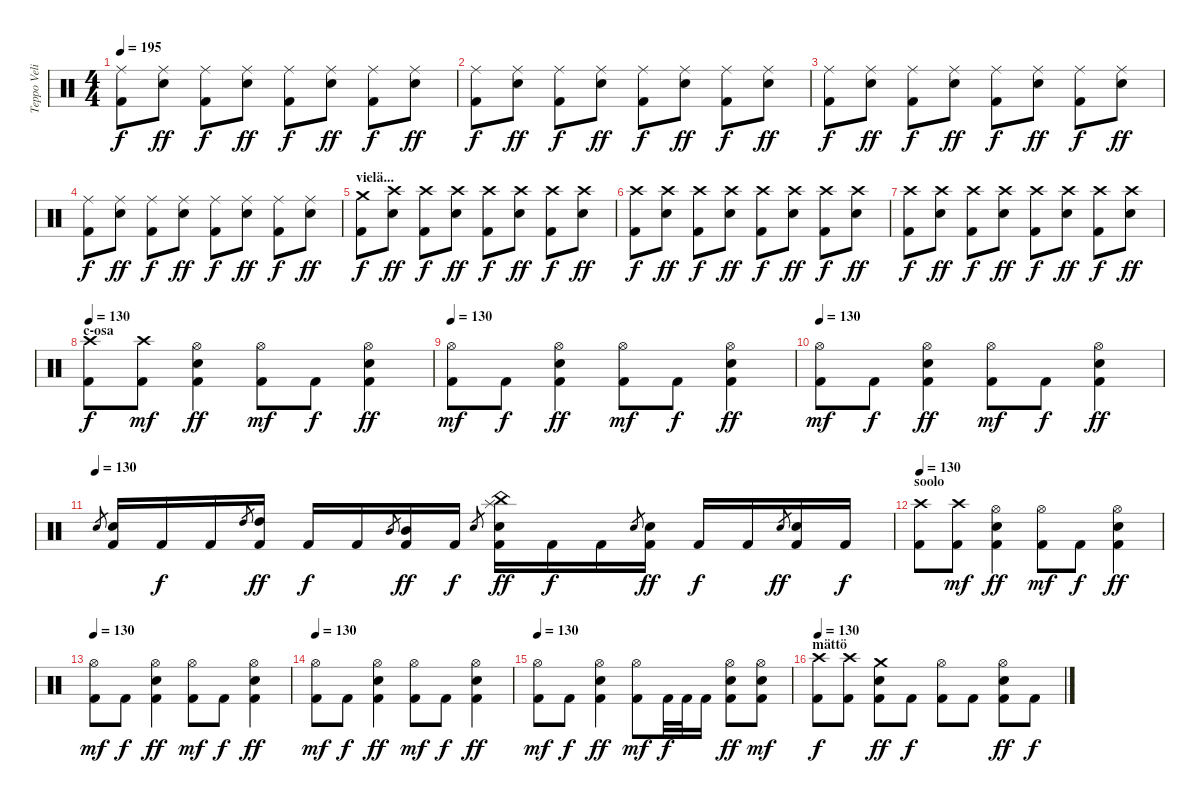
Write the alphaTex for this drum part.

\track ("Teppo Velin" "Teppo Veli") {instrument percussion}
\staff {score}
\articulation defaults
\ts (4 4)
\tempo 195
\clef neutral
\ks c
("Ride (middle)" "Kick (hit) 2").8{dy f} ("Ride (middle)" "Electric Snare (hit)").8{dy ff} ("Ride (middle)" "Kick (hit) 2").8{dy f} ("Ride (middle)" "Electric Snare (hit)").8{dy ff} ("Ride (middle)" "Kick (hit) 2").8{dy f} ("Ride (middle)" "Electric Snare (hit)").8{dy ff} ("Ride (middle)" "Kick (hit) 2").8{dy f} ("Ride (middle)" "Electric Snare (hit)").8{dy ff} |
("Ride (middle)" "Kick (hit) 2").8{dy f} ("Ride (middle)" "Electric Snare (hit)").8{dy ff} ("Ride (middle)" "Kick (hit) 2").8{dy f} ("Ride (middle)" "Electric Snare (hit)").8{dy ff} ("Ride (middle)" "Kick (hit) 2").8{dy f} ("Ride (middle)" "Electric Snare (hit)").8{dy ff} ("Ride (middle)" "Kick (hit) 2").8{dy f} ("Ride (middle)" "Electric Snare (hit)").8{dy ff} |
("Ride (middle)" "Kick (hit) 2").8{dy f} ("Ride (middle)" "Electric Snare (hit)").8{dy ff} ("Ride (middle)" "Kick (hit) 2").8{dy f} ("Ride (middle)" "Electric Snare (hit)").8{dy ff} ("Ride (middle)" "Kick (hit) 2").8{dy f} ("Ride (middle)" "Electric Snare (hit)").8{dy ff} ("Ride (middle)" "Kick (hit) 2").8{dy f} ("Ride (middle)" "Electric Snare (hit)").8{dy ff} |
("Ride (middle)" "Kick (hit) 2").8{dy f} ("Ride (middle)" "Electric Snare (hit)").8{dy ff} ("Ride (middle)" "Kick (hit) 2").8{dy f} ("Ride (middle)" "Electric Snare (hit)").8{dy ff} ("Ride (middle)" "Kick (hit) 2").8{dy f} ("Ride (middle)" "Electric Snare (hit)").8{dy ff} ("Ride (middle)" "Kick (hit) 2").8{dy f} ("Ride (middle)" "Electric Snare (hit)").8{dy ff} |
\section ("" "vielä...")
("Crash medium (hit)" "Kick (hit) 2").8{dy f} ("Crash high (hit)" "Electric Snare (hit)").8{dy ff} ("Crash high (hit)" "Kick (hit) 2").8{dy f} ("Crash high (hit)" "Electric Snare (hit)").8{dy ff} ("Crash high (hit)" "Kick (hit) 2").8{dy f} ("Crash high (hit)" "Electric Snare (hit)").8{dy ff} ("Crash high (hit)" "Kick (hit) 2").8{dy f} ("Crash high (hit)" "Electric Snare (hit)").8{dy ff} |
("Crash high (hit)" "Kick (hit) 2").8{dy f} ("Crash high (hit)" "Electric Snare (hit)").8{dy ff} ("Crash high (hit)" "Kick (hit) 2").8{dy f} ("Crash high (hit)" "Electric Snare (hit)").8{dy ff} ("Crash high (hit)" "Kick (hit) 2").8{dy f} ("Crash high (hit)" "Electric Snare (hit)").8{dy ff} ("Crash high (hit)" "Kick (hit) 2").8{dy f} ("Crash high (hit)" "Electric Snare (hit)").8{dy ff} |
("Crash high (hit)" "Kick (hit) 2").8{dy f} ("Crash high (hit)" "Electric Snare (hit)").8{dy ff} ("Crash high (hit)" "Kick (hit) 2").8{dy f} ("Crash high (hit)" "Electric Snare (hit)").8{dy ff} ("Crash high (hit)" "Kick (hit) 2").8{dy f} ("Crash high (hit)" "Electric Snare (hit)").8{dy ff} ("Crash high (hit)" "Kick (hit) 2").8{dy f} ("Crash high (hit)" "Electric Snare (hit)").8{dy ff} |
\section ("" "c-osa")
\tempo 130
("Crash high (hit)" "Kick (hit) 2").8{dy f} ("Crash high (hit)" "Kick (hit) 2").8{dy mf} ("Hi-Hat (open)" "Electric Snare (hit)" "Kick (hit) 2").4{dy ff} ("Hi-Hat (open)" "Kick (hit) 2").8{dy mf} "Kick (hit) 2".8{dy f} ("Hi-Hat (open)" "Electric Snare (hit)" "Kick (hit) 2").4{dy ff} |
\tempo 130
("Hi-Hat (open)" "Kick (hit) 2").8{dy mf} "Kick (hit) 2".8{dy f} ("Hi-Hat (open)" "Electric Snare (hit)" "Kick (hit) 2").4{dy ff} ("Hi-Hat (open)" "Kick (hit) 2").8{dy mf} "Kick (hit) 2".8{dy f} ("Hi-Hat (open)" "Electric Snare (hit)" "Kick (hit) 2").4{dy ff} |
\tempo 130
("Hi-Hat (open)" "Kick (hit) 2").8{dy mf} "Kick (hit) 2".8{dy f} ("Hi-Hat (open)" "Electric Snare (hit)" "Kick (hit) 2").4{dy ff} ("Hi-Hat (open)" "Kick (hit) 2").8{dy mf} "Kick (hit) 2".8{dy f} ("Hi-Hat (open)" "Electric Snare (hit)" "Kick (hit) 2").4{dy ff} |
\tempo (130)
"Electric Snare (hit)".8{gr} ("Electric Snare (hit)" "Kick (hit) 2").16 "Kick (hit) 2".16{dy f} "Kick (hit) 2".16 "High Tom (hit)".8{gr} ("High Tom (hit)" "Kick (hit) 2").16{dy ff} "Kick (hit) 2".16{dy f} "Kick (hit) 2".16 "Mid Tom (hit)".8{gr} ("Mid Tom (hit)" "Kick (hit) 2").16{dy ff} "Kick (hit) 2".16{dy f} "Electric Snare (hit)".8{gr} ("China (hit)" "Splash (hit)" "Electric Snare (hit)" "Kick (hit) 2").16{dy ff} "Kick (hit) 2".16{dy f} "Kick (hit) 2".16 "Electric Snare (hit)".8{gr} ("Electric Snare (hit)" "Kick (hit) 2").16{dy ff} "Kick (hit) 2".16{dy f} "Kick (hit) 2".16 "Electric Snare (hit)".8{gr dy ff} ("Electric Snare (hit)" "Kick (hit) 2").16 "Kick (hit) 2".16{dy f} |
\section ("" "soolo")
\tempo 130
("Crash high (hit)" "Kick (hit) 2").8 ("Crash high (hit)" "Kick (hit) 2").8{dy mf} ("Hi-Hat (open)" "Electric Snare (hit)" "Kick (hit) 2").4{dy ff} ("Hi-Hat (open)" "Kick (hit) 2").8{dy mf} "Kick (hit) 2".8{dy f} ("Hi-Hat (open)" "Electric Snare (hit)" "Kick (hit) 2").4{dy ff} |
\tempo 130
("Hi-Hat (open)" "Kick (hit) 2").8{dy mf} "Kick (hit) 2".8{dy f} ("Hi-Hat (open)" "Electric Snare (hit)" "Kick (hit) 2").4{dy ff} ("Hi-Hat (open)" "Kick (hit) 2").8{dy mf} "Kick (hit) 2".8{dy f} ("Hi-Hat (open)" "Electric Snare (hit)" "Kick (hit) 2").4{dy ff} |
\tempo 130
("Hi-Hat (open)" "Kick (hit) 2").8{dy mf} "Kick (hit) 2".8{dy f} ("Hi-Hat (open)" "Electric Snare (hit)" "Kick (hit) 2").4{dy ff} ("Hi-Hat (open)" "Kick (hit) 2").8{dy mf} "Kick (hit) 2".8{dy f} ("Hi-Hat (open)" "Electric Snare (hit)" "Kick (hit) 2").4{dy ff} |
\tempo 130
("Hi-Hat (open)" "Kick (hit) 2").8{dy mf} "Kick (hit) 2".8{dy f} ("Hi-Hat (open)" "Electric Snare (hit)" "Kick (hit) 2").4{dy ff} ("Hi-Hat (open)" "Kick (hit) 2").8{dy mf} "Kick (hit) 2".32{dy f} "Kick (hit) 2".32 "Kick (hit) 2".16 ("Hi-Hat (open)" "Electric Snare (hit)" "Kick (hit) 2").8{dy ff} ("Hi-Hat (open)" "Electric Snare (hit)" "Kick (hit) 2").8{dy mf} |
\section ("" "mättö")
\tempo 130
("Crash high (hit)" "Kick (hit) 2").8{dy f} ("Crash high (hit)" "Kick (hit) 2").8 ("Crash medium (hit)" "Electric Snare (hit)" "Kick (hit) 2").8{dy ff} "Kick (hit) 2".8{dy f} ("Hi-Hat (open)" "Kick (hit) 2").8 "Kick (hit) 2".8 ("Hi-Hat (open)" "Electric Snare (hit)" "Kick (hit) 2").8{dy ff} "Kick (hit) 2".8{dy f}
